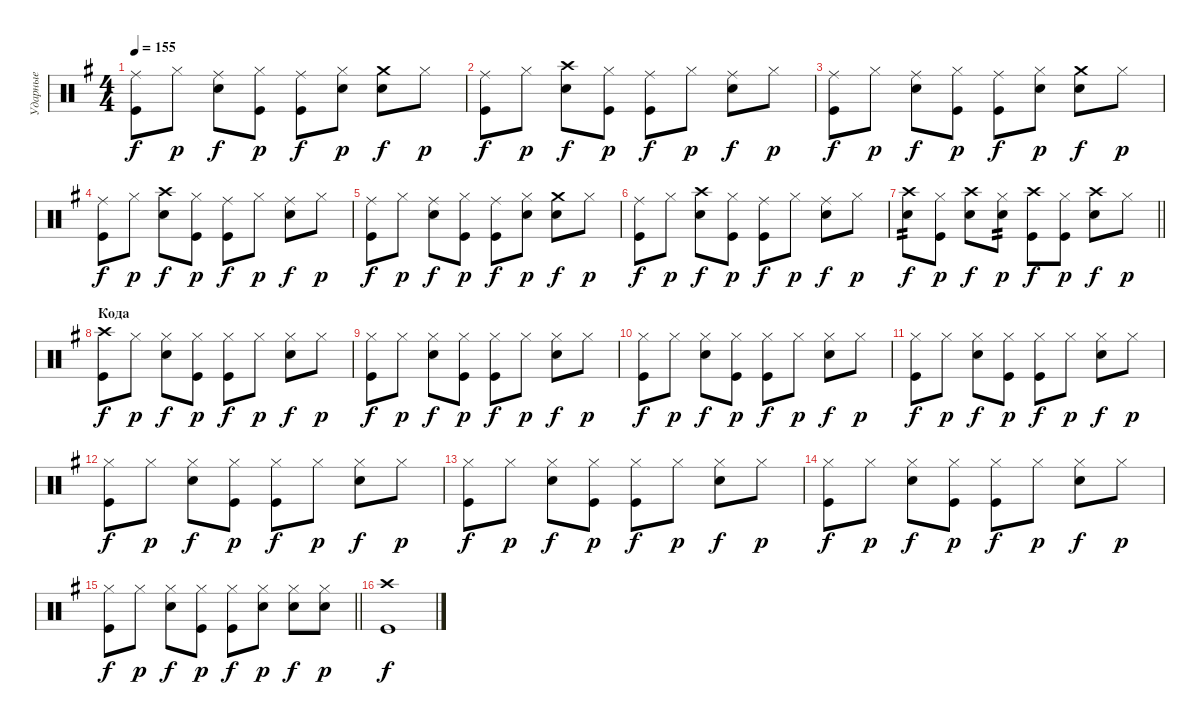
\track ("Ударные" "Ударные") {instrument percussion}
\staff {score}
\articulation defaults
\ts (4 4)
\tempo 155
\clef neutral
\ks eminor
("Ride (middle)" "Kick (hit)").8{dy f} "Hi-Hat (closed)".8{dy p} ("Ride (middle)" "Snare (hit) 2").8{dy f} ("Hi-Hat (closed)" "Kick (hit)").8{dy p} ("Ride (middle)" "Kick (hit)").8{dy f} ("Hi-Hat (closed)" "Snare (hit) 2").8{dy p} ("Crash medium (hit)" "Snare (hit) 2").8{dy f} "Hi-Hat (closed)".8{dy p} |
("Ride (middle)" "Kick (hit)").8{dy f} "Hi-Hat (closed)".8{dy p} ("Crash high (hit)" "Snare (hit) 2").8{dy f} ("Hi-Hat (closed)" "Kick (hit)").8{dy p} ("Ride (middle)" "Kick (hit)").8{dy f} "Hi-Hat (closed)".8{dy p} ("Ride (middle)" "Snare (hit) 2").8{dy f} "Hi-Hat (closed)".8{dy p} |
("Ride (middle)" "Kick (hit)").8{dy f} "Hi-Hat (closed)".8{dy p} ("Ride (middle)" "Snare (hit) 2").8{dy f} ("Hi-Hat (closed)" "Kick (hit)").8{dy p} ("Ride (middle)" "Kick (hit)").8{dy f} ("Hi-Hat (closed)" "Snare (hit) 2").8{dy p} ("Crash medium (hit)" "Snare (hit) 2").8{dy f} "Hi-Hat (closed)".8{dy p} |
("Ride (middle)" "Kick (hit)").8{dy f} "Hi-Hat (closed)".8{dy p} ("Crash high (hit)" "Snare (hit) 2").8{dy f} ("Hi-Hat (closed)" "Kick (hit)").8{dy p} ("Ride (middle)" "Kick (hit)").8{dy f} "Hi-Hat (closed)".8{dy p} ("Ride (middle)" "Snare (hit) 2").8{dy f} "Hi-Hat (closed)".8{dy p} |
("Ride (middle)" "Kick (hit)").8{dy f} "Hi-Hat (closed)".8{dy p} ("Ride (middle)" "Snare (hit) 2").8{dy f} ("Hi-Hat (closed)" "Kick (hit)").8{dy p} ("Ride (middle)" "Kick (hit)").8{dy f} ("Hi-Hat (closed)" "Snare (hit) 2").8{dy p} ("Crash medium (hit)" "Snare (hit) 2").8{dy f} "Hi-Hat (closed)".8{dy p} |
("Ride (middle)" "Kick (hit)").8{dy f} "Hi-Hat (closed)".8{dy p} ("Crash high (hit)" "Snare (hit) 2").8{dy f} ("Hi-Hat (closed)" "Kick (hit)").8{dy p} ("Ride (middle)" "Kick (hit)").8{dy f} "Hi-Hat (closed)".8{dy p} ("Ride (middle)" "Snare (hit) 2").8{dy f} "Hi-Hat (closed)".8{dy p} |
\barLineRight lightlight
("Crash high (hit)" "Snare (hit) 2").8{tp 2 dy f} ("Hi-Hat (closed)" "Kick (hit)").8{dy p} ("Crash high (hit)" "Snare (hit) 2").8{dy f} ("Hi-Hat (closed)" "Snare (hit) 2").8{tp 2 dy p} ("Crash high (hit)" "Kick (hit)").8{dy f} ("Hi-Hat (closed)" "Kick (hit)").8{dy p} ("Crash high (hit)" "Snare (hit) 2").8{dy f} "Hi-Hat (closed)".8{dy p} |
\section ("" "Кода")
("Crash high (hit)" "Kick (hit)").8{dy f} "Hi-Hat (closed)".8{dy p} ("Hi-Hat (closed)" "Snare (hit) 2").8{dy f} ("Hi-Hat (closed)" "Kick (hit)").8{dy p} ("Hi-Hat (closed)" "Kick (hit)").8{dy f} "Hi-Hat (closed)".8{dy p} ("Hi-Hat (closed)" "Snare (hit) 2").8{dy f} "Hi-Hat (closed)".8{dy p} |
("Hi-Hat (closed)" "Kick (hit)").8{dy f} "Hi-Hat (closed)".8{dy p} ("Hi-Hat (closed)" "Snare (hit) 2").8{dy f} ("Hi-Hat (closed)" "Kick (hit)").8{dy p} ("Hi-Hat (closed)" "Kick (hit)").8{dy f} "Hi-Hat (closed)".8{dy p} ("Hi-Hat (closed)" "Snare (hit) 2").8{dy f} "Hi-Hat (closed)".8{dy p} |
("Hi-Hat (closed)" "Kick (hit)").8{dy f} "Hi-Hat (closed)".8{dy p} ("Hi-Hat (closed)" "Snare (hit) 2").8{dy f} ("Hi-Hat (closed)" "Kick (hit)").8{dy p} ("Hi-Hat (closed)" "Kick (hit)").8{dy f} "Hi-Hat (closed)".8{dy p} ("Hi-Hat (closed)" "Snare (hit) 2").8{dy f} "Hi-Hat (closed)".8{dy p} |
("Hi-Hat (closed)" "Kick (hit)").8{dy f} "Hi-Hat (closed)".8{dy p} ("Hi-Hat (closed)" "Snare (hit) 2").8{dy f} ("Hi-Hat (closed)" "Kick (hit)").8{dy p} ("Hi-Hat (closed)" "Kick (hit)").8{dy f} "Hi-Hat (closed)".8{dy p} ("Hi-Hat (closed)" "Snare (hit) 2").8{dy f} "Hi-Hat (closed)".8{dy p} |
("Hi-Hat (closed)" "Kick (hit)").8{dy f} "Hi-Hat (closed)".8{dy p} ("Hi-Hat (closed)" "Snare (hit) 2").8{dy f} ("Hi-Hat (closed)" "Kick (hit)").8{dy p} ("Hi-Hat (closed)" "Kick (hit)").8{dy f} "Hi-Hat (closed)".8{dy p} ("Hi-Hat (closed)" "Snare (hit) 2").8{dy f} "Hi-Hat (closed)".8{dy p} |
("Hi-Hat (closed)" "Kick (hit)").8{dy f} "Hi-Hat (closed)".8{dy p} ("Hi-Hat (closed)" "Snare (hit) 2").8{dy f} ("Hi-Hat (closed)" "Kick (hit)").8{dy p} ("Hi-Hat (closed)" "Kick (hit)").8{dy f} "Hi-Hat (closed)".8{dy p} ("Hi-Hat (closed)" "Snare (hit) 2").8{dy f} "Hi-Hat (closed)".8{dy p} |
("Hi-Hat (closed)" "Kick (hit)").8{dy f} "Hi-Hat (closed)".8{dy p} ("Hi-Hat (closed)" "Snare (hit) 2").8{dy f} ("Hi-Hat (closed)" "Kick (hit)").8{dy p} ("Hi-Hat (closed)" "Kick (hit)").8{dy f} "Hi-Hat (closed)".8{dy p} ("Hi-Hat (closed)" "Snare (hit) 2").8{dy f} "Hi-Hat (closed)".8{dy p} |
\barLineRight lightlight
("Hi-Hat (closed)" "Kick (hit)").8{dy f} "Hi-Hat (closed)".8{dy p} ("Hi-Hat (closed)" "Snare (hit) 2").8{dy f} ("Hi-Hat (closed)" "Kick (hit)").8{dy p} ("Hi-Hat (closed)" "Kick (hit)").8{dy f} ("Hi-Hat (closed)" "Snare (hit) 2").8{dy p} ("Hi-Hat (closed)" "Snare (hit) 2").8{dy f} ("Hi-Hat (closed)" "Snare (hit) 2").8{dy p} |
("Crash high (hit)" "Kick (hit)").1{dy f}
